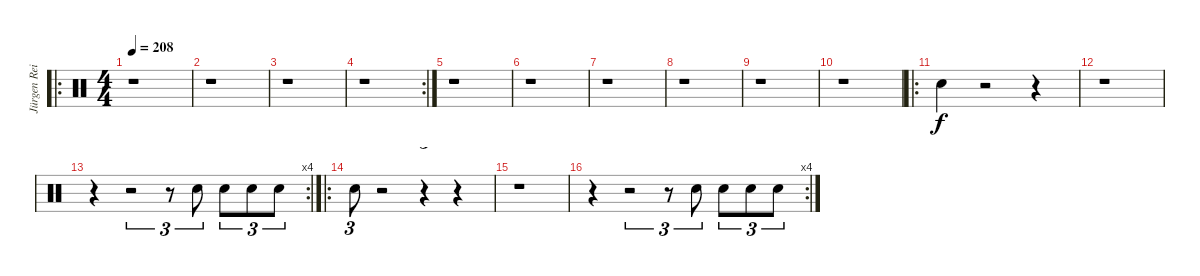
\track ("Jürgen Reil" "Jürgen Rei") {instrument percussion}
\staff {score}
\articulation defaults
\ro
\ts (4 4)
\tempo 208
\clef neutral
\ks c
r.1{dy f} |
r.1 |
r.1 |
\rc 2
r.1 |
r.1 |
r.1 |
r.1 |
r.1 |
r.1 |
r.1 |
\ro "Electric Snare (hit)".4
r.2 r.4 |
r.1 |
\rc 4
r.4 r.2{tu (3 2)} r.8{tu (3 2)} "Electric Snare (hit)".8{tu (3 2)} "Electric Snare (hit)".8{tu (3 2)} "Electric Snare (hit)".8{tu (3 2)} "Electric Snare (hit)".8{tu (3 2)} |
\ro "Electric Snare (hit)".8{tu (3 2)}
r.2 r.4{tu (3 2)} r.4 |
r.1 |
\rc 4
r.4 r.2{tu (3 2)} r.8{tu (3 2)} "Electric Snare (hit)".8{tu (3 2)} "Electric Snare (hit)".8{tu (3 2)} "Electric Snare (hit)".8{tu (3 2)} "Electric Snare (hit)".8{tu (3 2)}
